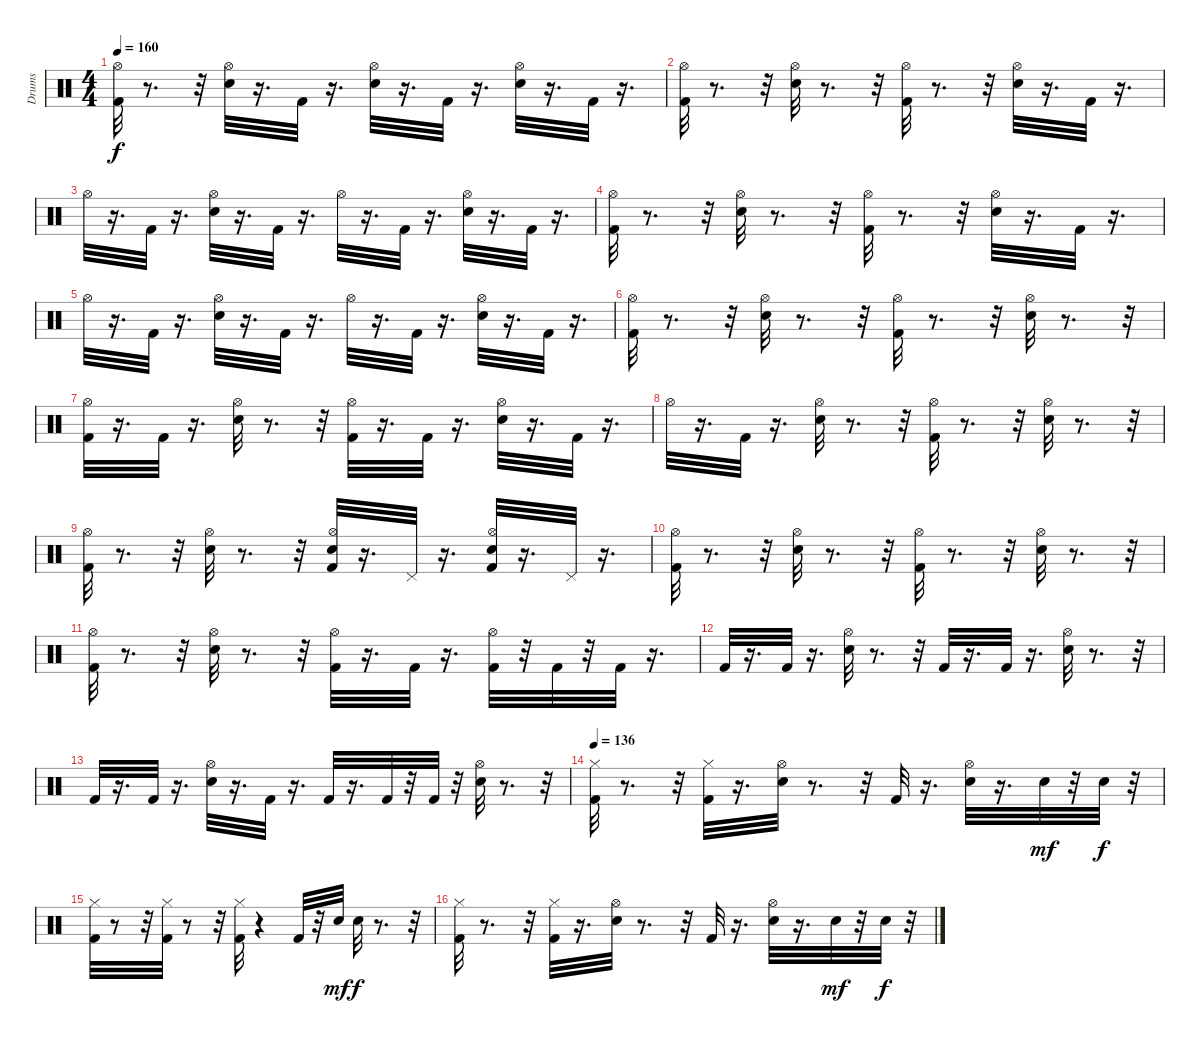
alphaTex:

\track ("Drums" "Drums") {instrument percussion}
\staff {score}
\articulation defaults
\ts (4 4)
\tempo 160
\clef neutral
\ks c
("Kick (hit) 2" "Hi-Hat (open)").32{dy f} r.8{d} r.32 ("Snare (hit) 2" "Hi-Hat (open)").32 r.16{d} "Kick (hit) 2".32 r.16{d} ("Snare (hit) 2" "Hi-Hat (open)").32 r.16{d} "Kick (hit) 2".32 r.16{d} ("Snare (hit) 2" "Hi-Hat (open)").32 r.16{d} "Kick (hit) 2".32 r.16{d} |
("Kick (hit) 2" "Hi-Hat (open)").32 r.8{d} r.32 ("Snare (hit) 2" "Hi-Hat (open)").32 r.8{d} r.32 ("Kick (hit) 2" "Hi-Hat (open)").32 r.8{d} r.32 ("Snare (hit) 2" "Hi-Hat (open)").32 r.16{d} "Kick (hit) 2".32 r.16{d} |
"Hi-Hat (open)".32 r.16{d} "Kick (hit) 2".32 r.16{d} ("Snare (hit) 2" "Hi-Hat (open)").32 r.16{d} "Kick (hit) 2".32 r.16{d} "Hi-Hat (open)".32 r.16{d} "Kick (hit) 2".32 r.16{d} ("Snare (hit) 2" "Hi-Hat (open)").32 r.16{d} "Kick (hit) 2".32 r.16{d} |
("Kick (hit) 2" "Hi-Hat (open)").32 r.8{d} r.32 ("Snare (hit) 2" "Hi-Hat (open)").32 r.8{d} r.32 ("Kick (hit) 2" "Hi-Hat (open)").32 r.8{d} r.32 ("Snare (hit) 2" "Hi-Hat (open)").32 r.16{d} "Kick (hit) 2".32 r.16{d} |
"Hi-Hat (open)".32 r.16{d} "Kick (hit) 2".32 r.16{d} ("Snare (hit) 2" "Hi-Hat (open)").32 r.16{d} "Kick (hit) 2".32 r.16{d} "Hi-Hat (open)".32 r.16{d} "Kick (hit) 2".32 r.16{d} ("Snare (hit) 2" "Hi-Hat (open)").32 r.16{d} "Kick (hit) 2".32 r.16{d} |
("Kick (hit) 2" "Hi-Hat (open)").32 r.8{d} r.32 ("Snare (hit) 2" "Hi-Hat (open)").32 r.8{d} r.32 ("Kick (hit) 2" "Hi-Hat (open)").32 r.8{d} r.32 ("Snare (hit) 2" "Hi-Hat (open)").32 r.8{d} r.32 |
("Kick (hit) 2" "Hi-Hat (open)").32 r.16{d} "Kick (hit) 2".32 r.16{d} ("Snare (hit) 2" "Hi-Hat (open)").32 r.8{d} r.32 ("Kick (hit) 2" "Hi-Hat (open)").32 r.16{d} "Kick (hit) 2".32 r.16{d} ("Snare (hit) 2" "Hi-Hat (open)").32 r.16{d} "Kick (hit) 2".32 r.16{d} |
"Hi-Hat (open)".32 r.16{d} "Kick (hit) 2".32 r.16{d} ("Snare (hit) 2" "Hi-Hat (open)").32 r.8{d} r.32 ("Kick (hit) 2" "Hi-Hat (open)").32 r.8{d} r.32 ("Snare (hit) 2" "Hi-Hat (open)").32 r.8{d} r.32 |
("Kick (hit) 2" "Hi-Hat (open)").32 r.8{d} r.32 ("Snare (hit) 2" "Hi-Hat (open)").32 r.8{d} r.32 ("Kick (hit) 2" "Snare (hit) 2" "Hi-Hat (open)").32 r.16{d} "Pedal Hi-Hat (hit)".32 r.16{d} ("Kick (hit) 2" "Snare (hit) 2" "Hi-Hat (open)").32 r.16{d} "Pedal Hi-Hat (hit)".32 r.16{d} |
("Kick (hit) 2" "Hi-Hat (open)").32 r.8{d} r.32 ("Snare (hit) 2" "Hi-Hat (open)").32 r.8{d} r.32 ("Kick (hit) 2" "Hi-Hat (open)").32 r.8{d} r.32 ("Snare (hit) 2" "Hi-Hat (open)").32 r.8{d} r.32 |
("Kick (hit) 2" "Hi-Hat (open)").32 r.8{d} r.32 ("Snare (hit) 2" "Hi-Hat (open)").32 r.8{d} r.32 ("Kick (hit) 2" "Hi-Hat (open)").32 r.16{d} "Kick (hit) 2".32 r.16{d} ("Kick (hit) 2" "Hi-Hat (open)").32 r.32 "Kick (hit) 2".32 r.32 "Kick (hit) 2".32 r.16{d} |
"Kick (hit) 2".32 r.16{d} "Kick (hit) 2".32 r.16{d} ("Snare (hit) 2" "Hi-Hat (open)").32 r.8{d} r.32 "Kick (hit) 2".32 r.16{d} "Kick (hit) 2".32 r.16{d} ("Snare (hit) 2" "Hi-Hat (open)").32 r.8{d} r.32 |
"Kick (hit) 2".32 r.16{d} "Kick (hit) 2".32 r.16{d} ("Snare (hit) 2" "Hi-Hat (open)").32 r.16{d} "Kick (hit) 2".32 r.16{d} "Kick (hit) 2".32 r.16{d} "Kick (hit) 2".32 r.32 "Kick (hit) 2".32 r.32 ("Snare (hit) 2" "Hi-Hat (open)").32 r.8{d} r.32 |
\tempo 136
("Kick (hit) 2" "Hi-Hat (closed)").32 r.8{d} r.32 ("Kick (hit) 2" "Hi-Hat (closed)").32 r.16{d} ("Snare (hit) 2" "Hi-Hat (open)").32 r.8{d} r.32 "Kick (hit) 2".32 r.16{d} ("Snare (hit) 2" "Hi-Hat (open)").32 r.16{d} "Snare (hit) 2".32{dy mf} r.32 "Snare (hit) 2".32{dy f} r.32 |
("Kick (hit) 2" "Hi-Hat (closed)").32 r.8 r.32 ("Kick (hit) 2" "Hi-Hat (closed)").32 r.8 r.32 ("Kick (hit) 2" "Hi-Hat (closed)").32 r.4 "Kick (hit) 2".32 r.32 "Snare (hit) 2".32{dy mf} "Snare (hit) 2".32{dy f} r.8{d} r.32 |
("Kick (hit) 2" "Hi-Hat (closed)").32 r.8{d} r.32 ("Kick (hit) 2" "Hi-Hat (closed)").32 r.16{d} ("Snare (hit) 2" "Hi-Hat (open)").32 r.8{d} r.32 "Kick (hit) 2".32 r.16{d} ("Snare (hit) 2" "Hi-Hat (open)").32 r.16{d} "Snare (hit) 2".32{dy mf} r.32 "Snare (hit) 2".32{dy f} r.32
